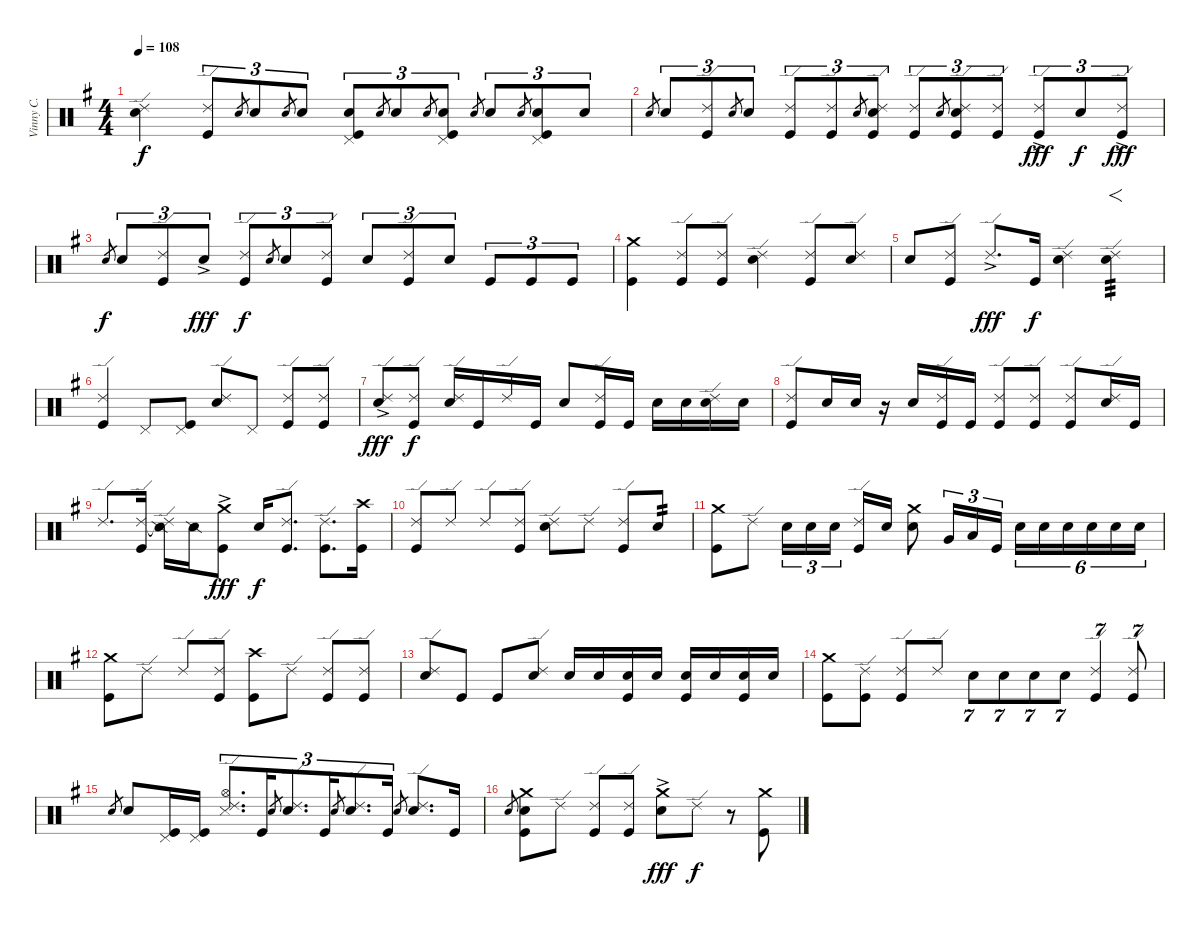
\track ("Vinny C." "Vinny C.") {instrument percussion}
\staff {score}
\articulation defaults
\ts (4 4)
\tempo 108
\clef neutral
\ks g
("Ride (edge) 2" "Electric Snare (hit)").4{dy f} ("Ride (edge) 2" "Kick (hit)").8{tu (3 2)} "Electric Snare (hit)".8{gr} "Electric Snare (hit)".8{tu (3 2)} "Electric Snare (hit)".8{gr} "Electric Snare (hit)".8{tu (3 2)} ("Pedal Hi-Hat (hit)" "Electric Snare (hit)" "Kick (hit)").8{tu (3 2)} "Electric Snare (hit)".8{gr} "Electric Snare (hit)".8{tu (3 2)} "Electric Snare (hit)".8{gr} ("Pedal Hi-Hat (hit)" "Electric Snare (hit)" "Kick (hit)").8{tu (3 2)} "Electric Snare (hit)".8{gr} "Electric Snare (hit)".8{tu (3 2)} "Electric Snare (hit)".8{gr} ("Pedal Hi-Hat (hit)" "Electric Snare (hit)" "Kick (hit)").8{tu (3 2)} "Electric Snare (hit)".8{tu (3 2)} |
"Electric Snare (hit)".8{gr} "Electric Snare (hit)".8{tu (3 2)} ("Ride (edge) 2" "Kick (hit)").8{tu (3 2)} "Electric Snare (hit)".8{gr} "Electric Snare (hit)".8{tu (3 2)} ("Ride (edge) 2" "Kick (hit)").8{tu (3 2)} ("Ride (edge) 2" "Kick (hit)").8{tu (3 2)} "Electric Snare (hit)".8{gr} ("Ride (edge) 2" "Electric Snare (hit)" "Kick (hit)").8{tu (3 2)} ("Ride (edge) 2" "Kick (hit)").8{tu (3 2)} "Electric Snare (hit)".8{gr} ("Ride (edge) 2" "Electric Snare (hit)" "Kick (hit)").8{tu (3 2)} ("Ride (edge) 2" "Kick (hit)").8{tu (3 2)} ("Ride (edge) 2"{ac} "Kick (hit)").8{tu (3 2) dy fff} "Electric Snare (hit)".8{tu (3 2) dy f} ("Ride (edge) 2"{ac} "Kick (hit)").8{tu (3 2) dy fff} |
"Electric Snare (hit)".8{gr dy f} "Electric Snare (hit)".8{tu (3 2)} ("Ride (edge) 2" "Kick (hit)").8{tu (3 2)} "Electric Snare (hit)"{ac}.8{tu (3 2) dy fff} ("Ride (edge) 2" "Kick (hit)").8{tu (3 2) dy f} "Electric Snare (hit)".8{gr} "Electric Snare (hit)".8{tu (3 2)} ("Ride (edge) 2" "Kick (hit)").8{tu (3 2)} "Electric Snare (hit)".8{tu (3 2)} ("Ride (edge) 2" "Kick (hit)").8{tu (3 2)} "Electric Snare (hit)".8{tu (3 2)} "Kick (hit)".8{tu (3 2)} "Kick (hit)".8{tu (3 2)} "Kick (hit)".8{tu (3 2)} |
("Crash medium (hit)" "Kick (hit)").4 ("Ride (edge) 2" "Kick (hit)").8 ("Ride (edge) 2" "Kick (hit)").8 ("Ride (edge) 2" "Electric Snare (hit)").4 ("Ride (edge) 2" "Kick (hit)").8 ("Ride (edge) 2" "Electric Snare (hit)").8 |
"Electric Snare (hit)".8 ("Ride (edge) 2" "Kick (hit)").8 "Ride (edge) 2"{ac}.8{d dy fff} "Kick (hit)".16{dy f} ("Ride (edge) 2" "Electric Snare (hit)").4 ("Ride (edge) 2" "Electric Snare (hit)").4{f tp 3} |
("Ride (edge) 2" "Kick (hit)").4 "Pedal Hi-Hat (hit)".8 ("Pedal Hi-Hat (hit)" "Kick (hit)").8 ("Ride (edge) 2" "Electric Snare (hit)").8 "Pedal Hi-Hat (hit)".8 ("Ride (edge) 2" "Kick (hit)").8 ("Ride (edge) 2" "Kick (hit)").8 |
("Ride (edge) 2"{ac} "Electric Snare (hit)").8{dy fff} ("Ride (edge) 2" "Kick (hit)").8{dy f} ("Ride (edge) 2" "Electric Snare (hit)").16 "Kick (hit)".16 "Ride (edge) 2".16 "Kick (hit)".16 "Electric Snare (hit)".8 ("Ride (edge) 2" "Kick (hit)").16 "Kick (hit)".16 "Electric Snare (hit)".16 "Electric Snare (hit)".16 ("Ride (edge) 2" "Electric Snare (hit)").16 "Electric Snare (hit)".16 |
("Ride (edge) 2" "Kick (hit)").8 "Electric Snare (hit)".16 "Electric Snare (hit)".16 r.16 "Electric Snare (hit)".16 ("Ride (edge) 2" "Kick (hit)").16 "Kick (hit)".16 ("Ride (edge) 2" "Kick (hit)").8 ("Ride (edge) 2" "Kick (hit)").8 ("Ride (edge) 2" "Kick (hit)").8 ("Ride (edge) 2" "Electric Snare (hit)").16 "Kick (hit)".16 |
"Ride (edge) 2".8{d} ("Ride (edge) 2" "Kick (hit)").16 ("Ride (edge) 2"{t} "Snare (side stick) 2").16 "Snare (side stick) 2".16 ("Crash medium (hit)"{ac} "Kick (hit)").8{dy fff} "Electric Snare (hit)".16{dy f} ("Ride (edge) 2" "Kick (hit)").8{d} ("Ride (edge) 2" "Kick (hit)").8{d} ("Crash high (hit)" "Kick (hit)").16 |
("Ride (edge) 2" "Kick (hit)").8 "Ride (edge) 2".8 "Ride (edge) 2".8 ("Ride (edge) 2" "Kick (hit)").8 ("Electric Snare (hit)" "Ride (edge) 2").8 "Ride (edge) 2".8 ("Ride (edge) 2" "Kick (hit)").8 "Electric Snare (hit)".8{tp 2} |
("Crash medium (hit)" "Kick (hit)").8 "Ride (edge) 2".8 "Electric Snare (hit)".16{tu (3 2)} "Electric Snare (hit)".16{tu (3 2)} "Electric Snare (hit)".16{tu (3 2)} ("Ride (edge) 2" "Kick (hit)").16 "Electric Snare (hit)".16 ("Crash medium (hit)" "Electric Snare (hit)").8 "Very Low Tom (hit)".16{tu (3 2)} "Low Floor Tom (hit)".16{tu (3 2)} "Kick (hit)".16{tu (3 2)} "Electric Snare (hit)".16{tu (6 4)} "Electric Snare (hit)".16{tu (6 4)} "Electric Snare (hit)".16{tu (6 4)} "Electric Snare (hit)".16{tu (6 4)} "Electric Snare (hit)".16{tu (6 4)} "Electric Snare (hit)".16{tu (6 4)} |
("Crash medium (hit)" "Kick (hit)").8 "Ride (edge) 2".8 "Ride (edge) 2".8 ("Ride (edge) 2" "Kick (hit)").8 ("Crash high (hit)" "Kick (hit)").8 "Ride (edge) 2".8 ("Ride (edge) 2" "Kick (hit)").8 ("Ride (edge) 2" "Kick (hit)").8 |
("Ride (edge) 2" "Electric Snare (hit)").8 "Kick (hit)".8 "Kick (hit)".8 ("Ride (edge) 2" "Electric Snare (hit)").8 "Electric Snare (hit)".16 "Electric Snare (hit)".16 ("Electric Snare (hit)" "Kick (hit)").16 "Electric Snare (hit)".16 ("Electric Snare (hit)" "Kick (hit)").16 "Electric Snare (hit)".16 ("Electric Snare (hit)" "Kick (hit)").16 "Electric Snare (hit)".16 |
("Crash medium (hit)" "Kick (hit)").8 ("Ride (edge) 2" "Kick (hit)").8 ("Ride (edge) 2" "Kick (hit)").8 "Ride (edge) 2".8 "Electric Snare (hit)".8{tu (7 4)} "Electric Snare (hit)".8{tu (7 4)} "Electric Snare (hit)".8{tu (7 4)} "Electric Snare (hit)".8{tu (7 4)} ("Ride (edge) 2" "Kick (hit)").4{tu (7 4)} ("Ride (edge) 2" "Kick (hit)").8{tu (7 4)} |
"Electric Snare (hit)".8{gr} "Electric Snare (hit)".8 ("Pedal Hi-Hat (hit)" "Kick (hit)").16 ("Pedal Hi-Hat (hit)" "Kick (hit)").16 ("Ride (edge) 2" "Hi-Hat (open)" "Snare (side stick) 3").8{d tu (3 2)} "Kick (hit)".16{tu (3 2)} "Electric Snare (hit)".8{gr} ("Ride (edge) 2" "Electric Snare (hit)").8{d tu (3 2)} "Kick (hit)".16{tu (3 2)} "Electric Snare (hit)".8{gr} ("Ride (edge) 2" "Electric Snare (hit)").8{d tu (3 2)} "Kick (hit)".16{tu (3 2)} "Electric Snare (hit)".8{gr} ("Ride (edge) 2" "Electric Snare (hit)").8{d} "Kick (hit)".16 |
"Electric Snare (hit)".8{gr} ("Crash medium (hit)" "Electric Snare (hit)" "Kick (hit)").8 "Ride (edge) 2".8 ("Ride (edge) 2" "Kick (hit)").8 ("Ride (edge) 2" "Kick (hit)").8 ("Crash medium (hit)" "Electric Snare (hit)"{ac}).8{dy fff} "Ride (edge) 2".8{dy f} r.8 ("Crash medium (hit)" "Kick (hit)").8
